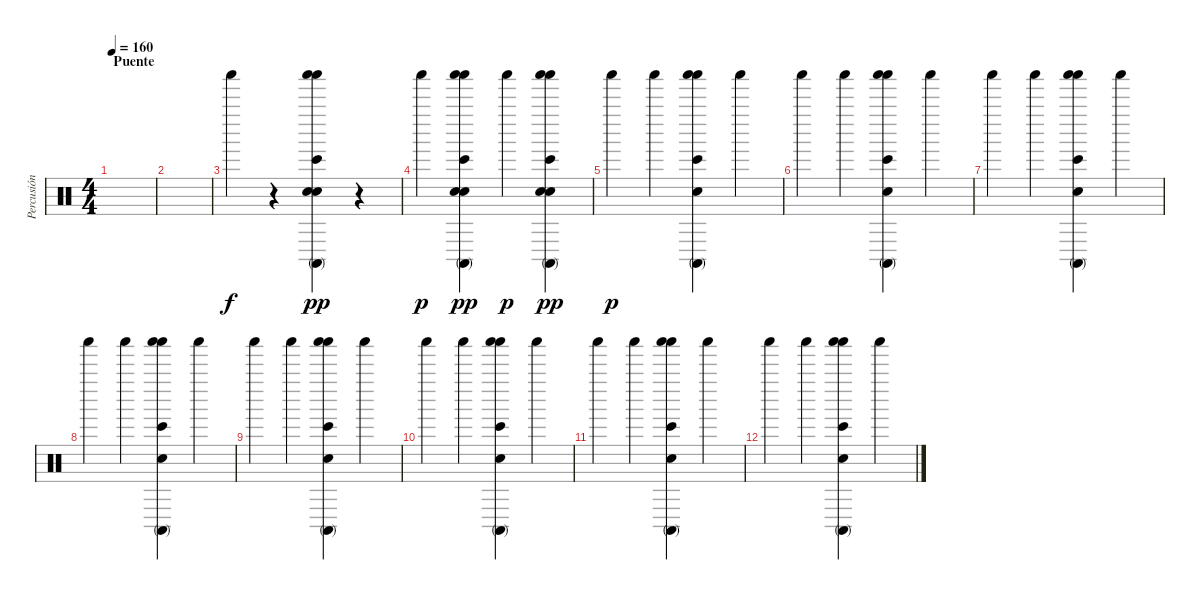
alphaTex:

\track ("Percusión" "Percusión") {instrument percussion}
\staff {score}
\articulation defaults
\ts (4 4)
\section ("" "Puente")
\tempo 160
\clef neutral
\ks c
|
|
"Shaker (hit)".4 r.4 ("Shaker (hit)" "Conga high (mute)" "Bongo High (hit)" "Shaker (hit)" "Snare (hit) 2" "Electric Snare (hit)").4{dy pp} r.4 |
"Shaker (hit)".4{dy p} ("Shaker (hit)" "Conga high (mute)" "Bongo High (hit)" "Shaker (hit)" "Snare (hit) 2" "Electric Snare (hit)").4{dy pp} "Shaker (hit)".4{dy p} ("Shaker (hit)" "Conga high (mute)" "Bongo High (hit)" "Shaker (hit)" "Snare (hit) 2" "Electric Snare (hit)").4{dy pp} |
"Shaker (hit)".4{dy p} "Shaker (hit)".4 ("Shaker (hit)" "Conga high (mute)" "Bongo High (hit)" "Shaker (hit)" "Snare (hit) 2").4 "Shaker (hit)".4 |
"Shaker (hit)".4 "Shaker (hit)".4 ("Shaker (hit)" "Conga high (mute)" "Bongo High (hit)" "Shaker (hit)" "Snare (hit) 2").4 "Shaker (hit)".4 |
"Shaker (hit)".4 "Shaker (hit)".4 ("Shaker (hit)" "Conga high (mute)" "Bongo High (hit)" "Shaker (hit)" "Snare (hit) 2").4 "Shaker (hit)".4 |
"Shaker (hit)".4 "Shaker (hit)".4 ("Shaker (hit)" "Conga high (mute)" "Bongo High (hit)" "Shaker (hit)" "Snare (hit) 2").4 "Shaker (hit)".4 |
"Shaker (hit)".4 "Shaker (hit)".4 ("Shaker (hit)" "Conga high (mute)" "Bongo High (hit)" "Shaker (hit)" "Snare (hit) 2").4 "Shaker (hit)".4 |
"Shaker (hit)".4 "Shaker (hit)".4 ("Shaker (hit)" "Conga high (mute)" "Bongo High (hit)" "Shaker (hit)" "Snare (hit) 2").4 "Shaker (hit)".4 |
"Shaker (hit)".4 "Shaker (hit)".4 ("Shaker (hit)" "Conga high (mute)" "Bongo High (hit)" "Shaker (hit)" "Snare (hit) 2").4 "Shaker (hit)".4 |
"Shaker (hit)".4 "Shaker (hit)".4 ("Shaker (hit)" "Conga high (mute)" "Bongo High (hit)" "Shaker (hit)" "Snare (hit) 2").4 "Shaker (hit)".4
